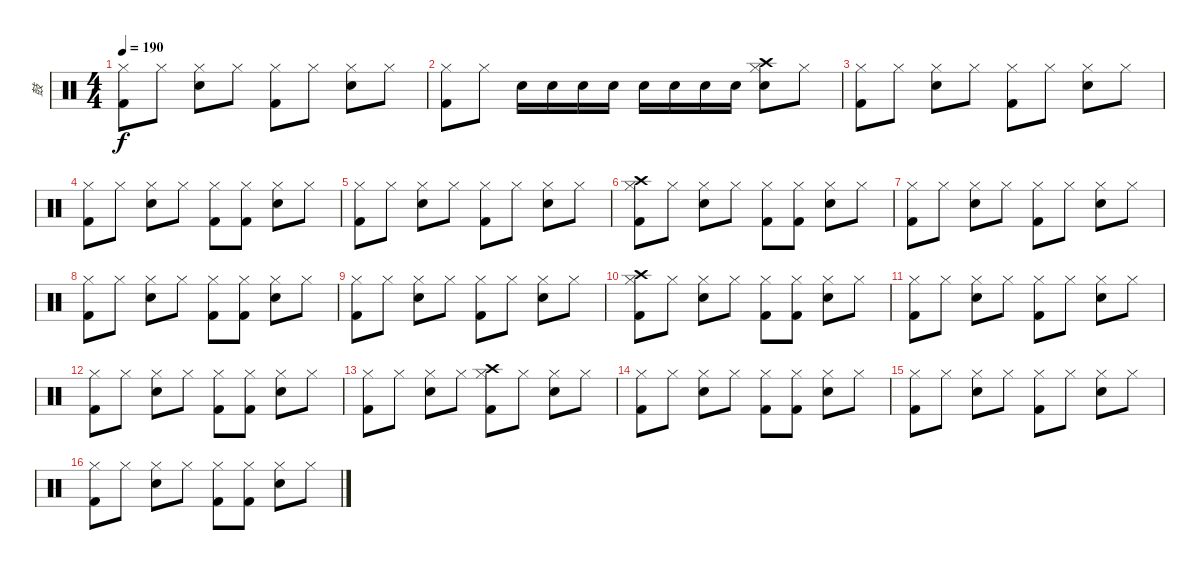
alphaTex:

\track ("鼓" "鼓") {instrument percussion}
\staff {score}
\articulation defaults
\ts (4 4)
\tempo 190
\clef neutral
\ks c
("Hi-Hat (closed)" "Kick (hit) 2").8{dy f} "Hi-Hat (closed)".8 ("Hi-Hat (closed)" "Snare (hit) 2").8 "Hi-Hat (closed)".8 ("Hi-Hat (closed)" "Kick (hit) 2").8 "Hi-Hat (closed)".8 ("Hi-Hat (closed)" "Snare (hit) 2").8 "Hi-Hat (closed)".8 |
("Hi-Hat (closed)" "Kick (hit) 2").8 "Hi-Hat (closed)".8 "Snare (hit) 2".16 "Snare (hit) 2".16 "Snare (hit) 2".16 "Snare (hit) 2".16 "Snare (hit) 2".16 "Snare (hit) 2".16 "Snare (hit) 2".16 "Snare (hit) 2".16 ("Crash high (hit)" "Hi-Hat (closed)" "Snare (hit) 2").8 "Hi-Hat (closed)".8 |
("Hi-Hat (closed)" "Kick (hit) 2").8 "Hi-Hat (closed)".8 ("Hi-Hat (closed)" "Snare (hit) 2").8 "Hi-Hat (closed)".8 ("Hi-Hat (closed)" "Kick (hit) 2").8 "Hi-Hat (closed)".8 ("Hi-Hat (closed)" "Snare (hit) 2").8 "Hi-Hat (closed)".8 |
("Hi-Hat (closed)" "Kick (hit) 2").8 "Hi-Hat (closed)".8 ("Hi-Hat (closed)" "Snare (hit) 2").8 "Hi-Hat (closed)".8 ("Hi-Hat (closed)" "Kick (hit) 2").8 ("Hi-Hat (closed)" "Kick (hit) 2").8 ("Hi-Hat (closed)" "Snare (hit) 2").8 "Hi-Hat (closed)".8 |
("Hi-Hat (closed)" "Kick (hit) 2").8 "Hi-Hat (closed)".8 ("Hi-Hat (closed)" "Snare (hit) 2").8 "Hi-Hat (closed)".8 ("Hi-Hat (closed)" "Kick (hit) 2").8 "Hi-Hat (closed)".8 ("Hi-Hat (closed)" "Snare (hit) 2").8 "Hi-Hat (closed)".8 |
("Crash high (hit)" "Hi-Hat (closed)" "Kick (hit) 2").8 "Hi-Hat (closed)".8 ("Hi-Hat (closed)" "Snare (hit) 2").8 "Hi-Hat (closed)".8 ("Hi-Hat (closed)" "Kick (hit) 2").8 ("Hi-Hat (closed)" "Kick (hit) 2").8 ("Hi-Hat (closed)" "Snare (hit) 2").8 "Hi-Hat (closed)".8 |
("Hi-Hat (closed)" "Kick (hit) 2").8 "Hi-Hat (closed)".8 ("Hi-Hat (closed)" "Snare (hit) 2").8 "Hi-Hat (closed)".8 ("Hi-Hat (closed)" "Kick (hit) 2").8 "Hi-Hat (closed)".8 ("Hi-Hat (closed)" "Snare (hit) 2").8 "Hi-Hat (closed)".8 |
("Hi-Hat (closed)" "Kick (hit) 2").8 "Hi-Hat (closed)".8 ("Hi-Hat (closed)" "Snare (hit) 2").8 "Hi-Hat (closed)".8 ("Hi-Hat (closed)" "Kick (hit) 2").8 ("Hi-Hat (closed)" "Kick (hit) 2").8 ("Hi-Hat (closed)" "Snare (hit) 2").8 "Hi-Hat (closed)".8 |
("Hi-Hat (closed)" "Kick (hit) 2").8 "Hi-Hat (closed)".8 ("Hi-Hat (closed)" "Snare (hit) 2").8 "Hi-Hat (closed)".8 ("Hi-Hat (closed)" "Kick (hit) 2").8 "Hi-Hat (closed)".8 ("Hi-Hat (closed)" "Snare (hit) 2").8 "Hi-Hat (closed)".8 |
("Crash high (hit)" "Hi-Hat (closed)" "Kick (hit) 2").8 "Hi-Hat (closed)".8 ("Hi-Hat (closed)" "Snare (hit) 2").8 "Hi-Hat (closed)".8 ("Hi-Hat (closed)" "Kick (hit) 2").8 ("Hi-Hat (closed)" "Kick (hit) 2").8 ("Hi-Hat (closed)" "Snare (hit) 2").8 "Hi-Hat (closed)".8 |
("Hi-Hat (closed)" "Kick (hit) 2").8 "Hi-Hat (closed)".8 ("Hi-Hat (closed)" "Snare (hit) 2").8 "Hi-Hat (closed)".8 ("Hi-Hat (closed)" "Kick (hit) 2").8 "Hi-Hat (closed)".8 ("Hi-Hat (closed)" "Snare (hit) 2").8 "Hi-Hat (closed)".8 |
("Hi-Hat (closed)" "Kick (hit) 2").8 "Hi-Hat (closed)".8 ("Hi-Hat (closed)" "Snare (hit) 2").8 "Hi-Hat (closed)".8 ("Hi-Hat (closed)" "Kick (hit) 2").8 ("Hi-Hat (closed)" "Kick (hit) 2").8 ("Hi-Hat (closed)" "Snare (hit) 2").8 "Hi-Hat (closed)".8 |
("Hi-Hat (closed)" "Kick (hit) 2").8 "Hi-Hat (closed)".8 ("Hi-Hat (closed)" "Snare (hit) 2").8 "Hi-Hat (closed)".8 ("Crash high (hit)" "Hi-Hat (closed)" "Kick (hit) 2").8 "Hi-Hat (closed)".8 ("Hi-Hat (closed)" "Snare (hit) 2").8 "Hi-Hat (closed)".8 |
("Hi-Hat (closed)" "Kick (hit) 2").8 "Hi-Hat (closed)".8 ("Hi-Hat (closed)" "Snare (hit) 2").8 "Hi-Hat (closed)".8 ("Hi-Hat (closed)" "Kick (hit) 2").8 ("Hi-Hat (closed)" "Kick (hit) 2").8 ("Hi-Hat (closed)" "Snare (hit) 2").8 "Hi-Hat (closed)".8 |
("Hi-Hat (closed)" "Kick (hit) 2").8 "Hi-Hat (closed)".8 ("Hi-Hat (closed)" "Snare (hit) 2").8 "Hi-Hat (closed)".8 ("Hi-Hat (closed)" "Kick (hit) 2").8 "Hi-Hat (closed)".8 ("Hi-Hat (closed)" "Snare (hit) 2").8 "Hi-Hat (closed)".8 |
("Hi-Hat (closed)" "Kick (hit) 2").8 "Hi-Hat (closed)".8 ("Hi-Hat (closed)" "Snare (hit) 2").8 "Hi-Hat (closed)".8 ("Hi-Hat (closed)" "Kick (hit) 2").8 ("Hi-Hat (closed)" "Kick (hit) 2").8 ("Hi-Hat (closed)" "Snare (hit) 2").8 "Hi-Hat (closed)".8
